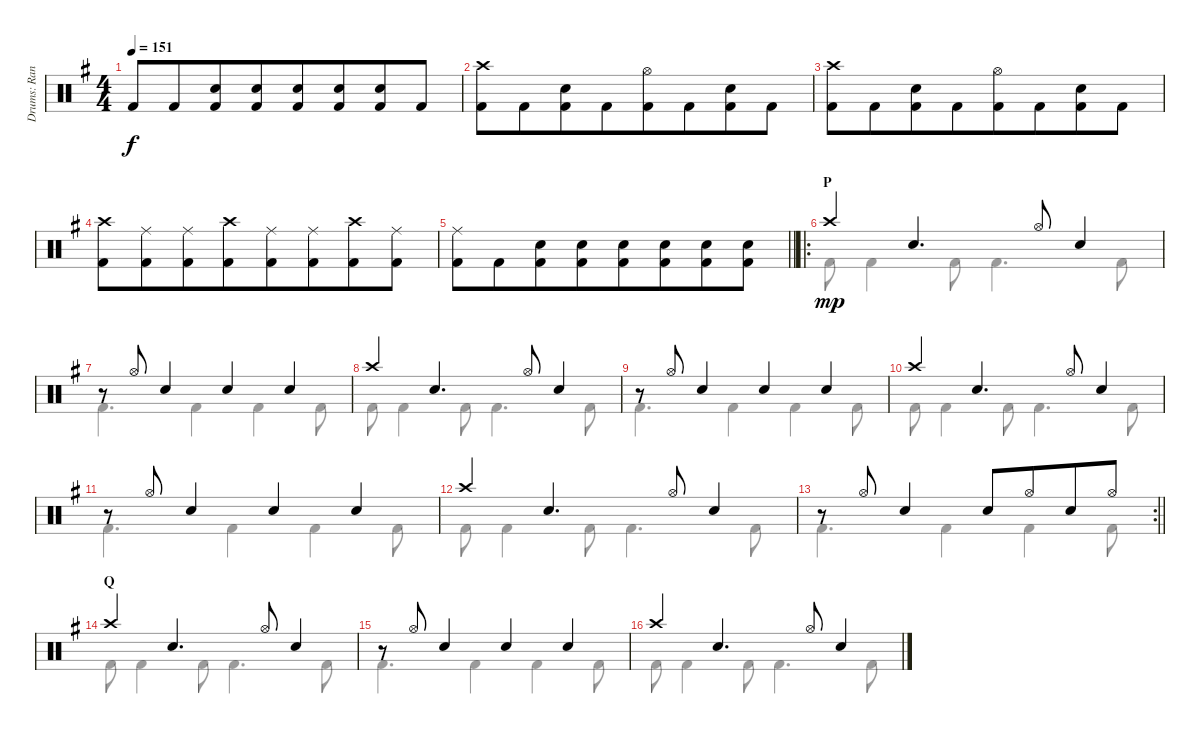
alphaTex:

\track ("Drums: Randy" "Drums: Ran") {instrument percussion}
\staff {score}
\articulation defaults
\voice
\ts (4 4)
\tempo 151
\clef neutral
\ks g "Kick (hit) 2".8{dy f} "Kick (hit) 2".8{beam merge}
("Snare (hit) 2" "Kick (hit) 2").8 ("Snare (hit) 2" "Kick (hit) 2").8{beam merge} ("Snare (hit) 2" "Kick (hit) 2").8 ("Snare (hit) 2" "Kick (hit) 2").8{beam merge} ("Snare (hit) 2" "Kick (hit) 2").8 "Kick (hit) 2".8 |
("Crash high (hit)" "Kick (hit) 2").8 "Kick (hit) 2".8{beam merge} ("Snare (hit) 2" "Kick (hit) 2").8 "Kick (hit) 2".8{beam merge} ("Hi-Hat (open)" "Kick (hit) 2").8 "Kick (hit) 2".8{beam merge} ("Snare (hit) 2" "Kick (hit) 2").8 "Kick (hit) 2".8 |
("Crash high (hit)" "Kick (hit) 2").8 "Kick (hit) 2".8{beam merge} ("Snare (hit) 2" "Kick (hit) 2").8 "Kick (hit) 2".8{beam merge} ("Hi-Hat (open)" "Kick (hit) 2").8 "Kick (hit) 2".8{beam merge} ("Snare (hit) 2" "Kick (hit) 2").8 "Kick (hit) 2".8 |
("Crash high (hit)" "Kick (hit) 2").8 ("Ride (middle)" "Kick (hit) 2").8{beam merge} ("Ride (middle)" "Kick (hit) 2").8 ("Crash high (hit)" "Kick (hit) 2").8{beam merge} ("Ride (middle)" "Kick (hit) 2").8 ("Ride (middle)" "Kick (hit) 2").8{beam merge} ("Crash high (hit)" "Kick (hit) 2").8 ("Ride (middle)" "Kick (hit) 2").8 |
\barLineRight lightlight
("Ride (middle)" "Kick (hit) 2").8 "Kick (hit) 2".8{beam merge} ("Snare (hit) 2" "Kick (hit) 2").8 ("Snare (hit) 2" "Kick (hit) 2").8{beam merge} ("Snare (hit) 2" "Kick (hit) 2").8 ("Snare (hit) 2" "Kick (hit) 2").8{beam merge} ("Snare (hit) 2" "Kick (hit) 2").8 ("Snare (hit) 2" "Kick (hit) 2").8 |
\ro
\section ("" "P")
"Crash high (hit)".4{dy mp} "Snare (hit) 2".4{d} "Hi-Hat (open)".8 "Snare (hit) 2".4 |
r.8 "Hi-Hat (open)".8 "Snare (hit) 2".4 "Snare (hit) 2".4 "Snare (hit) 2".4 |
"Crash high (hit)".4 "Snare (hit) 2".4{d} "Hi-Hat (open)".8 "Snare (hit) 2".4 |
r.8 "Hi-Hat (open)".8 "Snare (hit) 2".4 "Snare (hit) 2".4 "Snare (hit) 2".4 |
"Crash high (hit)".4 "Snare (hit) 2".4{d} "Hi-Hat (open)".8 "Snare (hit) 2".4 |
r.8 "Hi-Hat (open)".8 "Snare (hit) 2".4 "Snare (hit) 2".4 "Snare (hit) 2".4 |
"Crash high (hit)".4 "Snare (hit) 2".4{d} "Hi-Hat (open)".8 "Snare (hit) 2".4 |
\rc 2
\barLineRight lightlight
r.8 "Hi-Hat (open)".8 "Snare (hit) 2".4 "Snare (hit) 2".8 "Hi-Hat (open)".8{beam merge} "Snare (hit) 2".8 "Hi-Hat (open)".8 |
\section ("" "Q")
"Crash high (hit)".4{volume 7} "Snare (hit) 2".4{d} "Hi-Hat (open)".8 "Snare (hit) 2".4 |
r.8 "Hi-Hat (open)".8 "Snare (hit) 2".4 "Snare (hit) 2".4 "Snare (hit) 2".4 |
"Crash high (hit)".4 "Snare (hit) 2".4{d} "Hi-Hat (open)".8 "Snare (hit) 2".4
\voice
\clef neutral
\ottava regular
\simile none
\ks g
|
|
|
|
\barLineRight lightlight
|
"Kick (hit) 2".8 "Kick (hit) 2".4 "Kick (hit) 2".8 "Kick (hit) 2".4{d} "Kick (hit) 2".8 |
"Kick (hit) 2".4{d} "Kick (hit) 2".4 "Kick (hit) 2".4 "Kick (hit) 2".8 |
"Kick (hit) 2".8 "Kick (hit) 2".4 "Kick (hit) 2".8 "Kick (hit) 2".4{d} "Kick (hit) 2".8 |
"Kick (hit) 2".4{d} "Kick (hit) 2".4 "Kick (hit) 2".4 "Kick (hit) 2".8 |
"Kick (hit) 2".8 "Kick (hit) 2".4 "Kick (hit) 2".8 "Kick (hit) 2".4{d} "Kick (hit) 2".8 |
"Kick (hit) 2".4{d} "Kick (hit) 2".4 "Kick (hit) 2".4 "Kick (hit) 2".8 |
"Kick (hit) 2".8 "Kick (hit) 2".4 "Kick (hit) 2".8 "Kick (hit) 2".4{d} "Kick (hit) 2".8 |
\barLineRight lightlight "Kick (hit) 2".4{d} "Kick (hit) 2".4 "Kick (hit) 2".4 "Kick (hit) 2".8
|
"Kick (hit) 2".8 "Kick (hit) 2".4 "Kick (hit) 2".8 "Kick (hit) 2".4{d} "Kick (hit) 2".8 |
"Kick (hit) 2".4{d} "Kick (hit) 2".4 "Kick (hit) 2".4 "Kick (hit) 2".8 |
"Kick (hit) 2".8 "Kick (hit) 2".4 "Kick (hit) 2".8 "Kick (hit) 2".4{d} "Kick (hit) 2".8
